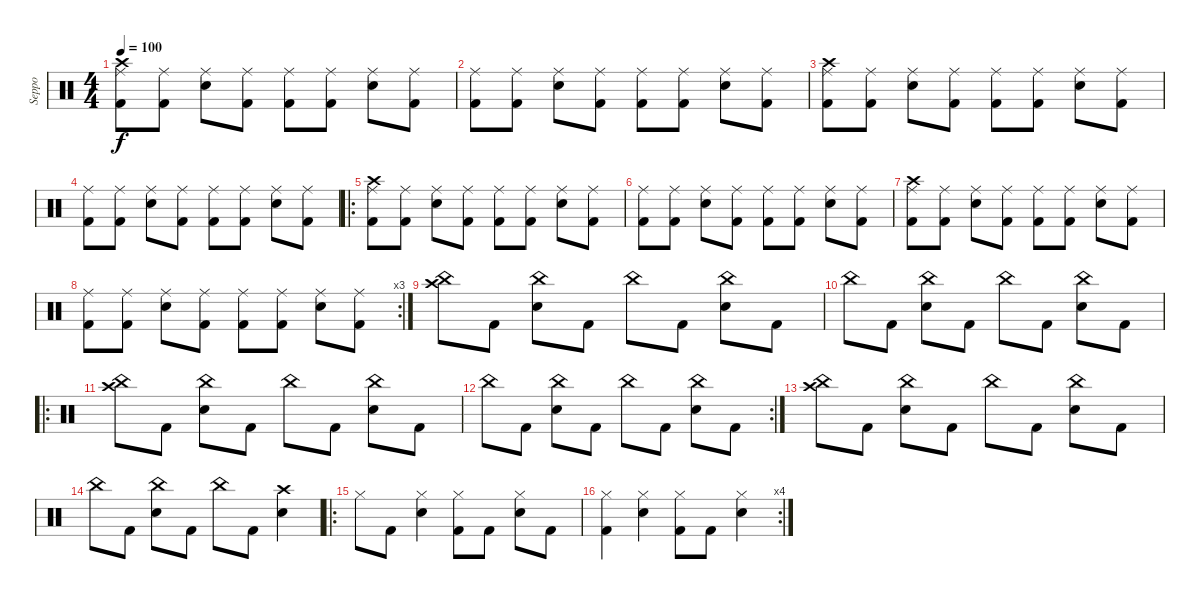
\track ("Seppo" "Seppo") {instrument percussion}
\staff {score}
\articulation defaults
\ts (4 4)
\tempo 100
\clef neutral
\ks c
("Crash high (hit)" "Ride (middle)" "Kick (hit) 2").8{dy f} ("Ride (middle)" "Kick (hit) 2").8 ("Ride (middle)" "Electric Snare (hit)").8 ("Ride (middle)" "Kick (hit) 2").8 ("Ride (middle)" "Kick (hit) 2").8 ("Ride (middle)" "Kick (hit) 2").8 ("Ride (middle)" "Electric Snare (hit)").8 ("Ride (middle)" "Kick (hit) 2").8 |
("Ride (middle)" "Kick (hit) 2").8 ("Ride (middle)" "Kick (hit) 2").8 ("Ride (middle)" "Electric Snare (hit)").8 ("Ride (middle)" "Kick (hit) 2").8 ("Ride (middle)" "Kick (hit) 2").8 ("Ride (middle)" "Kick (hit) 2").8 ("Ride (middle)" "Electric Snare (hit)").8 ("Ride (middle)" "Kick (hit) 2").8 |
("Crash high (hit)" "Ride (middle)" "Kick (hit) 2").8 ("Ride (middle)" "Kick (hit) 2").8 ("Ride (middle)" "Electric Snare (hit)").8 ("Ride (middle)" "Kick (hit) 2").8 ("Ride (middle)" "Kick (hit) 2").8 ("Ride (middle)" "Kick (hit) 2").8 ("Ride (middle)" "Electric Snare (hit)").8 ("Ride (middle)" "Kick (hit) 2").8 |
("Ride (middle)" "Kick (hit) 2").8 ("Ride (middle)" "Kick (hit) 2").8 ("Ride (middle)" "Electric Snare (hit)").8 ("Ride (middle)" "Kick (hit) 2").8 ("Ride (middle)" "Kick (hit) 2").8 ("Ride (middle)" "Kick (hit) 2").8 ("Ride (middle)" "Electric Snare (hit)").8 ("Ride (middle)" "Kick (hit) 2").8 |
\ro
("Crash high (hit)" "Ride (middle)" "Kick (hit) 2").8 ("Ride (middle)" "Kick (hit) 2").8 ("Ride (middle)" "Electric Snare (hit)").8 ("Ride (middle)" "Kick (hit) 2").8 ("Ride (middle)" "Kick (hit) 2").8 ("Ride (middle)" "Kick (hit) 2").8 ("Ride (middle)" "Electric Snare (hit)").8 ("Ride (middle)" "Kick (hit) 2").8 |
("Ride (middle)" "Kick (hit) 2").8 ("Ride (middle)" "Kick (hit) 2").8 ("Ride (middle)" "Electric Snare (hit)").8 ("Ride (middle)" "Kick (hit) 2").8 ("Ride (middle)" "Kick (hit) 2").8 ("Ride (middle)" "Kick (hit) 2").8 ("Ride (middle)" "Electric Snare (hit)").8 ("Ride (middle)" "Kick (hit) 2").8 |
("Crash high (hit)" "Ride (middle)" "Kick (hit) 2").8 ("Ride (middle)" "Kick (hit) 2").8 ("Ride (middle)" "Electric Snare (hit)").8 ("Ride (middle)" "Kick (hit) 2").8 ("Ride (middle)" "Kick (hit) 2").8 ("Ride (middle)" "Kick (hit) 2").8 ("Ride (middle)" "Electric Snare (hit)").8 ("Ride (middle)" "Kick (hit) 2").8 |
\rc 3
("Ride (middle)" "Kick (hit) 2").8 ("Ride (middle)" "Kick (hit) 2").8 ("Ride (middle)" "Electric Snare (hit)").8 ("Ride (middle)" "Kick (hit) 2").8 ("Ride (middle)" "Kick (hit) 2").8 ("Ride (middle)" "Kick (hit) 2").8 ("Ride (middle)" "Electric Snare (hit)").8 ("Ride (middle)" "Kick (hit) 2").8 |
("Crash high (hit)" "China (hit)").8 "Kick (hit) 2".8 ("China (hit)" "Electric Snare (hit)").8 "Kick (hit) 2".8 "China (hit)".8 "Kick (hit) 2".8 ("China (hit)" "Electric Snare (hit)").8 "Kick (hit) 2".8 |
"China (hit)".8 "Kick (hit) 2".8 ("China (hit)" "Electric Snare (hit)").8 "Kick (hit) 2".8 "China (hit)".8 "Kick (hit) 2".8 ("China (hit)" "Electric Snare (hit)").8 "Kick (hit) 2".8 |
\ro
("Crash high (hit)" "China (hit)").8 "Kick (hit) 2".8 ("China (hit)" "Electric Snare (hit)").8 "Kick (hit) 2".8 "China (hit)".8 "Kick (hit) 2".8 ("China (hit)" "Electric Snare (hit)").8 "Kick (hit) 2".8 |
\rc 2 "China (hit)".8 "Kick (hit) 2".8
("China (hit)" "Electric Snare (hit)").8 "Kick (hit) 2".8 "China (hit)".8 "Kick (hit) 2".8 ("China (hit)" "Electric Snare (hit)").8 "Kick (hit) 2".8 |
("Crash high (hit)" "China (hit)").8 "Kick (hit) 2".8 ("China (hit)" "Electric Snare (hit)").8 "Kick (hit) 2".8 "China (hit)".8 "Kick (hit) 2".8 ("China (hit)" "Electric Snare (hit)").8 "Kick (hit) 2".8 |
"China (hit)".8 "Kick (hit) 2".8 ("China (hit)" "Electric Snare (hit)").8 "Kick (hit) 2".8 "China (hit)".8 "Kick (hit) 2".8 ("Crash high (hit)" "Electric Snare (hit)").4 |
\ro "Hi-Hat (closed)".8 "Kick (hit) 2".8
("Hi-Hat (closed)" "Electric Snare (hit)").4 ("Hi-Hat (closed)" "Kick (hit) 2").8 "Kick (hit) 2".8 ("Hi-Hat (closed)" "Electric Snare (hit)").8 "Kick (hit) 2".8 |
\rc 4
("Hi-Hat (closed)" "Kick (hit) 2").4 ("Hi-Hat (closed)" "Electric Snare (hit)").4 ("Hi-Hat (closed)" "Kick (hit) 2").8 "Kick (hit) 2".8 ("Hi-Hat (closed)" "Electric Snare (hit)").4
